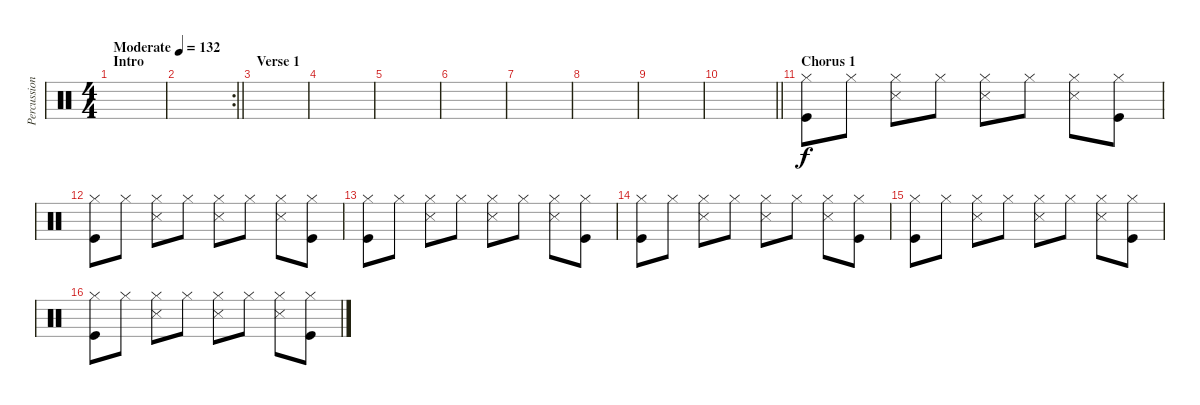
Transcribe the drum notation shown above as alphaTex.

\track ("Percussion" "Percussion") {instrument percussion}
\staff {score}
\articulation defaults
\ts (4 4)
\section ("" "Intro")
\tempo (132 "Moderate")
\clef neutral
\ks c
|
\rc 2
\barLineRight lightlight
|
\section ("" "Verse 1")
|
|
|
|
|
|
|
\barLineRight lightlight
|
\section ("" "Chorus 1")
("Hi-Hat (closed)" "Kick (hit)").8 "Hi-Hat (closed)".8 ("Hi-Hat (closed)" "Snare (side stick) 3").8 "Hi-Hat (closed)".8 ("Hi-Hat (closed)" "Snare (side stick) 3").8 "Hi-Hat (closed)".8 ("Hi-Hat (closed)" "Snare (side stick) 3").8 ("Hi-Hat (closed)" "Kick (hit)").8 |
("Hi-Hat (closed)" "Kick (hit)").8 "Hi-Hat (closed)".8 ("Hi-Hat (closed)" "Snare (side stick) 3").8 "Hi-Hat (closed)".8 ("Hi-Hat (closed)" "Snare (side stick) 3").8 "Hi-Hat (closed)".8 ("Hi-Hat (closed)" "Snare (side stick) 3").8 ("Hi-Hat (closed)" "Kick (hit)").8 |
("Hi-Hat (closed)" "Kick (hit)").8 "Hi-Hat (closed)".8 ("Hi-Hat (closed)" "Snare (side stick) 3").8 "Hi-Hat (closed)".8 ("Hi-Hat (closed)" "Snare (side stick) 3").8 "Hi-Hat (closed)".8 ("Hi-Hat (closed)" "Snare (side stick) 3").8 ("Hi-Hat (closed)" "Kick (hit)").8 |
("Hi-Hat (closed)" "Kick (hit)").8 "Hi-Hat (closed)".8 ("Hi-Hat (closed)" "Snare (side stick) 3").8 "Hi-Hat (closed)".8 ("Hi-Hat (closed)" "Snare (side stick) 3").8 "Hi-Hat (closed)".8 ("Hi-Hat (closed)" "Snare (side stick) 3").8 ("Hi-Hat (closed)" "Kick (hit)").8 |
("Hi-Hat (closed)" "Kick (hit)").8 "Hi-Hat (closed)".8 ("Hi-Hat (closed)" "Snare (side stick) 3").8 "Hi-Hat (closed)".8 ("Hi-Hat (closed)" "Snare (side stick) 3").8 "Hi-Hat (closed)".8 ("Hi-Hat (closed)" "Snare (side stick) 3").8 ("Hi-Hat (closed)" "Kick (hit)").8 |
("Hi-Hat (closed)" "Kick (hit)").8 "Hi-Hat (closed)".8 ("Hi-Hat (closed)" "Snare (side stick) 3").8 "Hi-Hat (closed)".8 ("Hi-Hat (closed)" "Snare (side stick) 3").8 "Hi-Hat (closed)".8 ("Hi-Hat (closed)" "Snare (side stick) 3").8 ("Hi-Hat (closed)" "Kick (hit)").8
